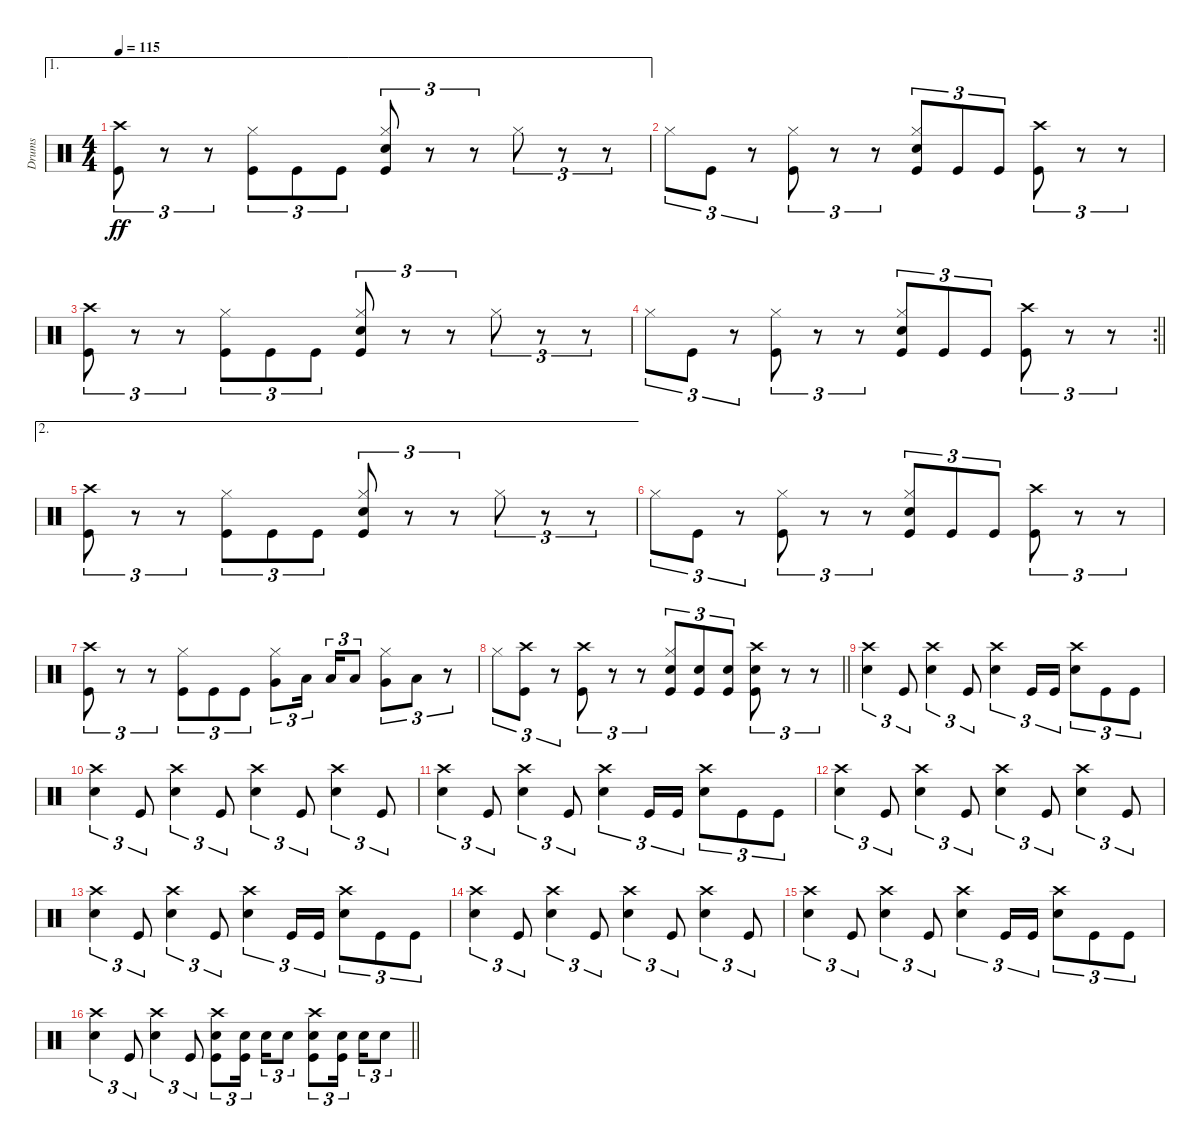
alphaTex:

\track ("Drums" "Drums") {instrument percussion}
\staff {score}
\articulation defaults
\ae 1
\ts (4 4)
\tempo 115
\clef neutral
\ks c
("Crash high (hit)" "Kick (hit)").8{tu (3 2) dy ff} r.8{tu (3 2)} r.8{tu (3 2)} ("Hi-Hat (closed)" "Kick (hit)").8{tu (3 2)} "Kick (hit)".8{tu (3 2)} "Kick (hit)".8{tu (3 2)} ("Hi-Hat (closed)" "Snare (hit) 2" "Kick (hit)").8{tu (3 2)} r.8{tu (3 2)} r.8{tu (3 2)} "Hi-Hat (closed)".8{tu (3 2)} r.8{tu (3 2)} r.8{tu (3 2)} |
"Hi-Hat (closed)".8{tu (3 2)} "Kick (hit)".8{tu (3 2)} r.8{tu (3 2)} ("Hi-Hat (closed)" "Kick (hit)").8{tu (3 2)} r.8{tu (3 2)} r.8{tu (3 2)} ("Hi-Hat (closed)" "Snare (hit) 2" "Kick (hit)").8{tu (3 2)} "Kick (hit)".8{tu (3 2)} "Kick (hit)".8{tu (3 2)} ("Crash high (hit)" "Kick (hit)").8{tu (3 2)} r.8{tu (3 2)} r.8{tu (3 2)} |
("Crash high (hit)" "Kick (hit)").8{tu (3 2)} r.8{tu (3 2)} r.8{tu (3 2)} ("Hi-Hat (closed)" "Kick (hit)").8{tu (3 2)} "Kick (hit)".8{tu (3 2)} "Kick (hit)".8{tu (3 2)} ("Hi-Hat (closed)" "Snare (hit) 2" "Kick (hit)").8{tu (3 2)} r.8{tu (3 2)} r.8{tu (3 2)} "Hi-Hat (closed)".8{tu (3 2)} r.8{tu (3 2)} r.8{tu (3 2)} |
\rc 2
\barLineRight lightlight "Hi-Hat (closed)".8{tu (3 2)} "Kick (hit)".8{tu (3 2)}
r.8{tu (3 2)} ("Hi-Hat (closed)" "Kick (hit)").8{tu (3 2)} r.8{tu (3 2)} r.8{tu (3 2)} ("Hi-Hat (closed)" "Snare (hit) 2" "Kick (hit)").8{tu (3 2)} "Kick (hit)".8{tu (3 2)} "Kick (hit)".8{tu (3 2)} ("Crash high (hit)" "Kick (hit)").8{tu (3 2)} r.8{tu (3 2)} r.8{tu (3 2)} |
\ae 2
("Crash high (hit)" "Kick (hit)").8{tu (3 2)} r.8{tu (3 2)} r.8{tu (3 2)} ("Hi-Hat (closed)" "Kick (hit)").8{tu (3 2)} "Kick (hit)".8{tu (3 2)} "Kick (hit)".8{tu (3 2)} ("Hi-Hat (closed)" "Snare (hit) 2" "Kick (hit)").8{tu (3 2)} r.8{tu (3 2)} r.8{tu (3 2)} "Hi-Hat (closed)".8{tu (3 2)} r.8{tu (3 2)} r.8{tu (3 2)} |
"Hi-Hat (closed)".8{tu (3 2)} "Kick (hit)".8{tu (3 2)} r.8{tu (3 2)} ("Hi-Hat (closed)" "Kick (hit)").8{tu (3 2)} r.8{tu (3 2)} r.8{tu (3 2)} ("Hi-Hat (closed)" "Snare (hit) 2" "Kick (hit)").8{tu (3 2)} "Kick (hit)".8{tu (3 2)} "Kick (hit)".8{tu (3 2)} ("Crash high (hit)" "Kick (hit)").8{tu (3 2)} r.8{tu (3 2)} r.8{tu (3 2)} |
("Crash high (hit)" "Kick (hit)").8{tu (3 2)} r.8{tu (3 2)} r.8{tu (3 2)} ("Hi-Hat (closed)" "Kick (hit)").8{tu (3 2)} "Kick (hit)".8{tu (3 2)} "Kick (hit)".8{tu (3 2)} ("Hi-Hat (closed)" "Very Low Tom (hit)").8{tu (3 2)} "Low Tom (hit)".16{tu (3 2) beam splitsecondary} "Low Floor Tom (hit)".16{tu (3 2)} "Low Tom (hit)".8{tu (3 2)} ("Hi-Hat (closed)" "Very Low Tom (hit)").8{tu (3 2)} "Low Floor Tom (hit)".8{tu (3 2)} r.8{tu (3 2)} |
\barLineRight lightlight "Hi-Hat (closed)".8{tu (3 2)}
("Crash high (hit)" "Kick (hit)").8{tu (3 2)} r.8{tu (3 2)} ("Crash high (hit)" "Kick (hit)").8{tu (3 2)} r.8{tu (3 2)} r.8{tu (3 2)} ("Hi-Hat (closed)" "Snare (hit) 2" "Kick (hit)").8{tu (3 2)} ("Snare (hit) 2" "Kick (hit)").8{tu (3 2)} ("Snare (hit) 2" "Kick (hit)").8{tu (3 2)} ("Crash high (hit)" "Snare (hit) 2" "Kick (hit)").8{tu (3 2)} r.8{tu (3 2)} r.8{tu (3 2)} |
("Crash high (hit)" "Snare (hit) 2").4{tu (3 2)} "Kick (hit)".8{tu (3 2)} ("Crash high (hit)" "Snare (hit) 2").4{tu (3 2)} "Kick (hit)".8{tu (3 2)} ("Crash high (hit)" "Snare (hit) 2").4{tu (3 2)} "Kick (hit)".16{tu (3 2)} "Kick (hit)".16{tu (3 2)} ("Crash high (hit)" "Snare (hit) 2").8{tu (3 2)} "Kick (hit)".8{tu (3 2)} "Kick (hit)".8{tu (3 2)} |
("Crash high (hit)" "Snare (hit) 2").4{tu (3 2)} "Kick (hit)".8{tu (3 2)} ("Crash high (hit)" "Snare (hit) 2").4{tu (3 2)} "Kick (hit)".8{tu (3 2)} ("Crash high (hit)" "Snare (hit) 2").4{tu (3 2)} "Kick (hit)".8{tu (3 2)} ("Crash high (hit)" "Snare (hit) 2").4{tu (3 2)} "Kick (hit)".8{tu (3 2)} |
("Crash high (hit)" "Snare (hit) 2").4{tu (3 2)} "Kick (hit)".8{tu (3 2)} ("Crash high (hit)" "Snare (hit) 2").4{tu (3 2)} "Kick (hit)".8{tu (3 2)} ("Crash high (hit)" "Snare (hit) 2").4{tu (3 2)} "Kick (hit)".16{tu (3 2)} "Kick (hit)".16{tu (3 2)} ("Crash high (hit)" "Snare (hit) 2").8{tu (3 2)} "Kick (hit)".8{tu (3 2)} "Kick (hit)".8{tu (3 2)} |
("Crash high (hit)" "Snare (hit) 2").4{tu (3 2)} "Kick (hit)".8{tu (3 2)} ("Crash high (hit)" "Snare (hit) 2").4{tu (3 2)} "Kick (hit)".8{tu (3 2)} ("Crash high (hit)" "Snare (hit) 2").4{tu (3 2)} "Kick (hit)".8{tu (3 2)} ("Crash high (hit)" "Snare (hit) 2").4{tu (3 2)} "Kick (hit)".8{tu (3 2)} |
("Crash high (hit)" "Snare (hit) 2").4{tu (3 2)} "Kick (hit)".8{tu (3 2)} ("Crash high (hit)" "Snare (hit) 2").4{tu (3 2)} "Kick (hit)".8{tu (3 2)} ("Crash high (hit)" "Snare (hit) 2").4{tu (3 2)} "Kick (hit)".16{tu (3 2)} "Kick (hit)".16{tu (3 2)} ("Crash high (hit)" "Snare (hit) 2").8{tu (3 2)} "Kick (hit)".8{tu (3 2)} "Kick (hit)".8{tu (3 2)} |
("Crash high (hit)" "Snare (hit) 2").4{tu (3 2)} "Kick (hit)".8{tu (3 2)} ("Crash high (hit)" "Snare (hit) 2").4{tu (3 2)} "Kick (hit)".8{tu (3 2)} ("Crash high (hit)" "Snare (hit) 2").4{tu (3 2)} "Kick (hit)".8{tu (3 2)} ("Crash high (hit)" "Snare (hit) 2").4{tu (3 2)} "Kick (hit)".8{tu (3 2)} |
("Crash high (hit)" "Snare (hit) 2").4{tu (3 2)} "Kick (hit)".8{tu (3 2)} ("Crash high (hit)" "Snare (hit) 2").4{tu (3 2)} "Kick (hit)".8{tu (3 2)} ("Crash high (hit)" "Snare (hit) 2").4{tu (3 2)} "Kick (hit)".16{tu (3 2)} "Kick (hit)".16{tu (3 2)} ("Crash high (hit)" "Snare (hit) 2").8{tu (3 2)} "Kick (hit)".8{tu (3 2)} "Kick (hit)".8{tu (3 2)} |
\barLineRight lightlight
("Crash high (hit)" "Snare (hit) 2").4{tu (3 2)} "Kick (hit)".8{tu (3 2)} ("Crash high (hit)" "Snare (hit) 2").4{tu (3 2)} "Kick (hit)".8{tu (3 2)} ("Crash high (hit)" "Snare (hit) 2" "Kick (hit)").8{tu (3 2)} ("Snare (hit) 2" "Kick (hit)").16{tu (3 2) beam splitsecondary} "Snare (hit) 2".16{tu (3 2)} "Snare (hit) 2".8{tu (3 2)} ("Crash high (hit)" "Snare (hit) 2" "Kick (hit)").8{tu (3 2)} ("Snare (hit) 2" "Kick (hit)").16{tu (3 2) beam splitsecondary} "Snare (hit) 2".16{tu (3 2)} "Snare (hit) 2".8{tu (3 2)}
